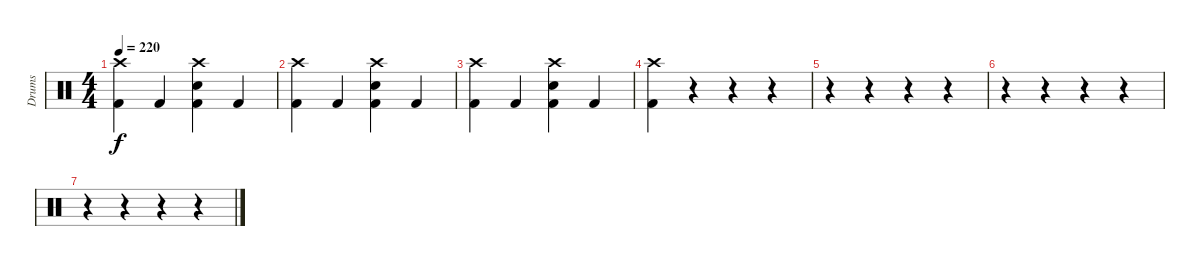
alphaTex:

\track ("Drums" "Drums") {instrument percussion}
\staff {score}
\articulation defaults
\ts (4 4)
\tempo 220
\clef neutral
\ks c
("Crash high (hit)" "Kick (hit) 2").4{dy f} "Kick (hit) 2".4 ("Crash high (hit)" "Snare (hit) 2" "Kick (hit) 2").4 "Kick (hit) 2".4 |
("Crash high (hit)" "Kick (hit) 2").4 "Kick (hit) 2".4 ("Crash high (hit)" "Snare (hit) 2" "Kick (hit) 2").4 "Kick (hit) 2".4 |
("Crash high (hit)" "Kick (hit) 2").4 "Kick (hit) 2".4 ("Crash high (hit)" "Snare (hit) 2" "Kick (hit) 2").4 "Kick (hit) 2".4 |
("Crash high (hit)" "Kick (hit) 2").4 r.4 r.4 r.4 |
r.4 r.4 r.4 r.4 |
r.4 r.4 r.4 r.4 |
r.4 r.4 r.4 r.4
